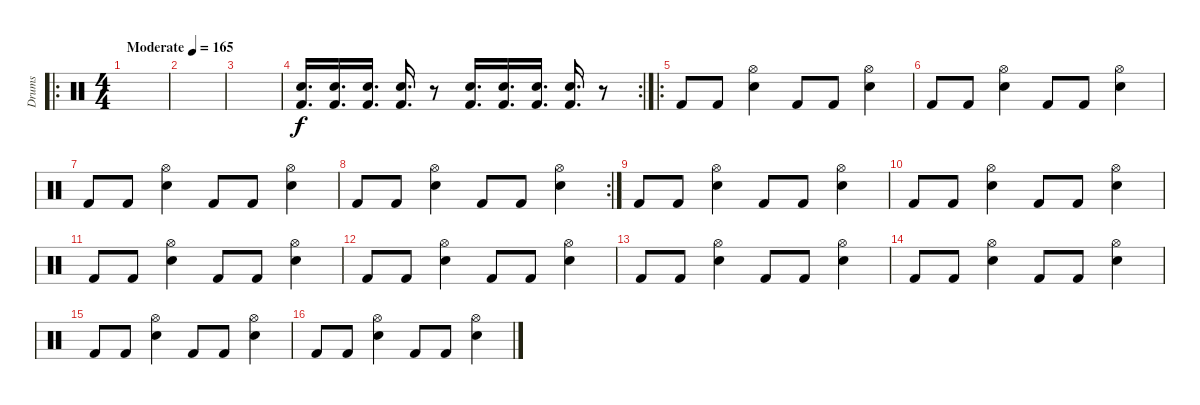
\track ("Drums" "Drums") {instrument percussion}
\staff {score}
\articulation defaults
\ro
\ts (4 4)
\tempo (165 "Moderate")
\clef neutral
\ks c
|
|
|
\rc 2
("Kick (hit) 2" "Snare (hit) 2").16{d} ("Kick (hit) 2" "Snare (hit) 2").16{d} ("Kick (hit) 2" "Snare (hit) 2").16{d} ("Kick (hit) 2" "Snare (hit) 2").16{d} r.8 ("Kick (hit) 2" "Snare (hit) 2").16{d} ("Kick (hit) 2" "Snare (hit) 2").16{d} ("Kick (hit) 2" "Snare (hit) 2").16{d} ("Kick (hit) 2" "Snare (hit) 2").16{d} r.8 |
\ro "Kick (hit) 2".8 "Kick (hit) 2".8
("Snare (hit) 2" "Hi-Hat (open)").4 "Kick (hit) 2".8 "Kick (hit) 2".8 ("Snare (hit) 2" "Hi-Hat (open)").4 |
"Kick (hit) 2".8 "Kick (hit) 2".8 ("Snare (hit) 2" "Hi-Hat (open)").4 "Kick (hit) 2".8 "Kick (hit) 2".8 ("Snare (hit) 2" "Hi-Hat (open)").4 |
"Kick (hit) 2".8 "Kick (hit) 2".8 ("Snare (hit) 2" "Hi-Hat (open)").4 "Kick (hit) 2".8 "Kick (hit) 2".8 ("Snare (hit) 2" "Hi-Hat (open)").4 |
\rc 2 "Kick (hit) 2".8 "Kick (hit) 2".8
("Snare (hit) 2" "Hi-Hat (open)").4 "Kick (hit) 2".8 "Kick (hit) 2".8 ("Snare (hit) 2" "Hi-Hat (open)").4 |
"Kick (hit) 2".8 "Kick (hit) 2".8 ("Snare (hit) 2" "Hi-Hat (open)").4 "Kick (hit) 2".8 "Kick (hit) 2".8 ("Snare (hit) 2" "Hi-Hat (open)").4 |
"Kick (hit) 2".8 "Kick (hit) 2".8 ("Snare (hit) 2" "Hi-Hat (open)").4 "Kick (hit) 2".8 "Kick (hit) 2".8 ("Snare (hit) 2" "Hi-Hat (open)").4 |
"Kick (hit) 2".8 "Kick (hit) 2".8 ("Snare (hit) 2" "Hi-Hat (open)").4 "Kick (hit) 2".8 "Kick (hit) 2".8 ("Snare (hit) 2" "Hi-Hat (open)").4 |
"Kick (hit) 2".8 "Kick (hit) 2".8 ("Snare (hit) 2" "Hi-Hat (open)").4 "Kick (hit) 2".8 "Kick (hit) 2".8 ("Snare (hit) 2" "Hi-Hat (open)").4 |
"Kick (hit) 2".8 "Kick (hit) 2".8 ("Snare (hit) 2" "Hi-Hat (open)").4 "Kick (hit) 2".8 "Kick (hit) 2".8 ("Snare (hit) 2" "Hi-Hat (open)").4 |
"Kick (hit) 2".8 "Kick (hit) 2".8 ("Snare (hit) 2" "Hi-Hat (open)").4 "Kick (hit) 2".8 "Kick (hit) 2".8 ("Snare (hit) 2" "Hi-Hat (open)").4 |
"Kick (hit) 2".8 "Kick (hit) 2".8 ("Snare (hit) 2" "Hi-Hat (open)").4 "Kick (hit) 2".8 "Kick (hit) 2".8 ("Snare (hit) 2" "Hi-Hat (open)").4 |
"Kick (hit) 2".8 "Kick (hit) 2".8 ("Snare (hit) 2" "Hi-Hat (open)").4 "Kick (hit) 2".8 "Kick (hit) 2".8 ("Snare (hit) 2" "Hi-Hat (open)").4
